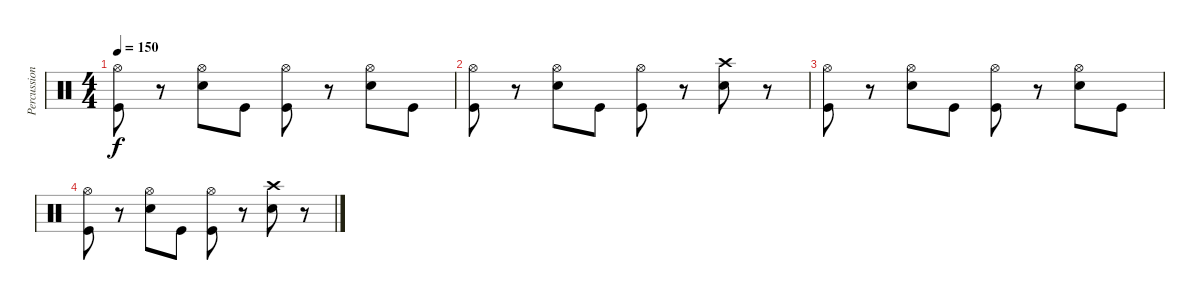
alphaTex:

\track ("Percussion" "Percussion") {instrument percussion}
\staff
\articulation defaults
\ts (4 4)
\tempo 150
\clef neutral
\ks c
("Hi-Hat (open)" "Kick (hit)").8{dy f} r.8 ("Hi-Hat (open)" "Electric Snare (hit)").8 "Kick (hit)".8 ("Hi-Hat (open)" "Kick (hit)").8 r.8 ("Hi-Hat (open)" "Electric Snare (hit)").8 "Kick (hit)".8 |
("Hi-Hat (open)" "Kick (hit)").8 r.8 ("Hi-Hat (open)" "Electric Snare (hit)").8 "Kick (hit)".8 ("Hi-Hat (open)" "Kick (hit)").8 r.8 ("Crash high (hit)" "Electric Snare (hit)").8 r.8 |
("Hi-Hat (open)" "Kick (hit)").8 r.8 ("Hi-Hat (open)" "Electric Snare (hit)").8 "Kick (hit)".8 ("Hi-Hat (open)" "Kick (hit)").8 r.8 ("Hi-Hat (open)" "Electric Snare (hit)").8 "Kick (hit)".8 |
("Hi-Hat (open)" "Kick (hit)").8 r.8 ("Hi-Hat (open)" "Electric Snare (hit)").8 "Kick (hit)".8 ("Hi-Hat (open)" "Kick (hit)").8 r.8 ("Crash high (hit)" "Electric Snare (hit)").8 r.8
